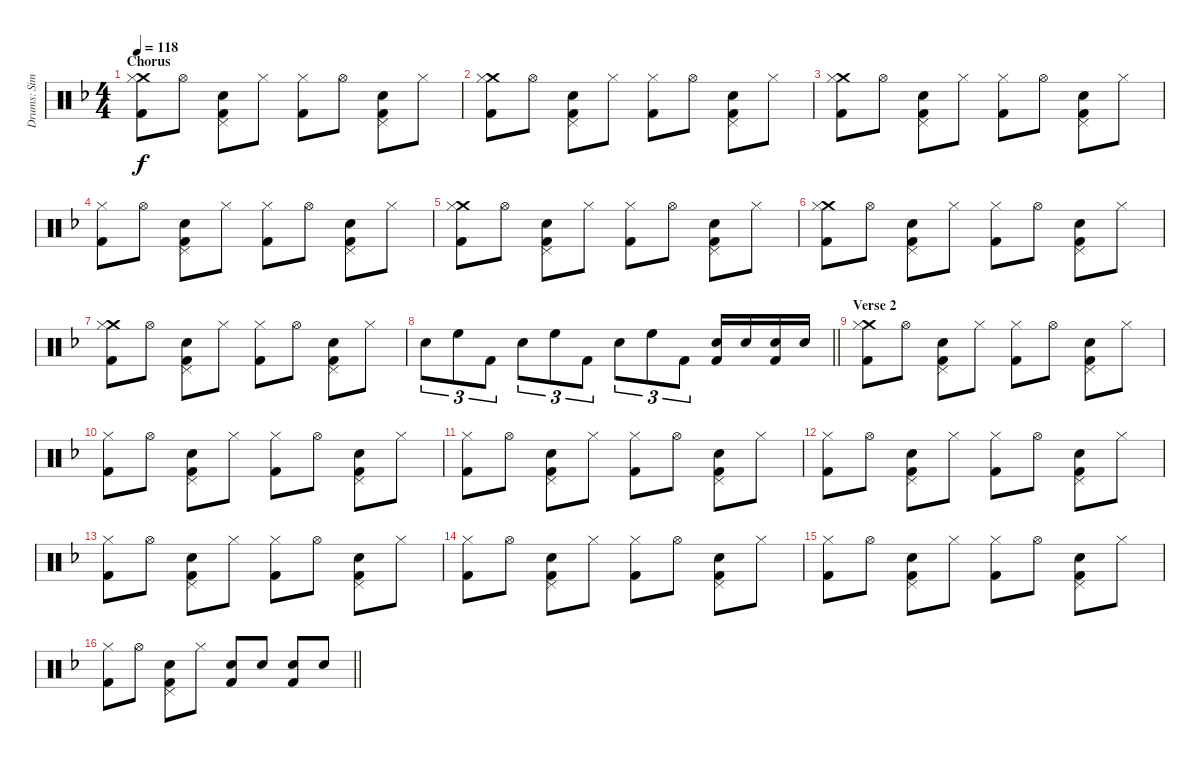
\track ("Drums: Simon Kirke" "Drums: Sim") {instrument percussion}
\staff {score}
\articulation defaults
\ts (4 4)
\section ("" "Chorus")
\tempo 118
\clef neutral
\ks f
("Crash medium (hit)" "Hi-Hat (closed)" "Kick (hit) 2").8{dy f} "Hi-Hat (open)".8 ("Pedal Hi-Hat (hit)" "Snare (hit) 2" "Kick (hit) 2").8 "Hi-Hat (closed)".8 ("Hi-Hat (closed)" "Kick (hit) 2").8 "Hi-Hat (open)".8 ("Pedal Hi-Hat (hit)" "Snare (hit) 2" "Kick (hit) 2").8 "Hi-Hat (closed)".8 |
("Crash medium (hit)" "Hi-Hat (closed)" "Kick (hit) 2").8 "Hi-Hat (open)".8 ("Pedal Hi-Hat (hit)" "Snare (hit) 2" "Kick (hit) 2").8 "Hi-Hat (closed)".8 ("Hi-Hat (closed)" "Kick (hit) 2").8 "Hi-Hat (open)".8 ("Pedal Hi-Hat (hit)" "Snare (hit) 2" "Kick (hit) 2").8 "Hi-Hat (closed)".8 |
("Crash medium (hit)" "Hi-Hat (closed)" "Kick (hit) 2").8 "Hi-Hat (open)".8 ("Pedal Hi-Hat (hit)" "Snare (hit) 2" "Kick (hit) 2").8 "Hi-Hat (closed)".8 ("Hi-Hat (closed)" "Kick (hit) 2").8 "Hi-Hat (open)".8 ("Pedal Hi-Hat (hit)" "Snare (hit) 2" "Kick (hit) 2").8 "Hi-Hat (closed)".8 |
("Hi-Hat (closed)" "Kick (hit) 2").8 "Hi-Hat (open)".8 ("Pedal Hi-Hat (hit)" "Snare (hit) 2" "Kick (hit) 2").8 "Hi-Hat (closed)".8 ("Hi-Hat (closed)" "Kick (hit) 2").8 "Hi-Hat (open)".8 ("Pedal Hi-Hat (hit)" "Snare (hit) 2" "Kick (hit) 2").8 "Hi-Hat (closed)".8 |
("Crash medium (hit)" "Hi-Hat (closed)" "Kick (hit) 2").8 "Hi-Hat (open)".8 ("Pedal Hi-Hat (hit)" "Snare (hit) 2" "Kick (hit) 2").8 "Hi-Hat (closed)".8 ("Hi-Hat (closed)" "Kick (hit) 2").8 "Hi-Hat (open)".8 ("Pedal Hi-Hat (hit)" "Snare (hit) 2" "Kick (hit) 2").8 "Hi-Hat (closed)".8 |
("Crash medium (hit)" "Hi-Hat (closed)" "Kick (hit) 2").8 "Hi-Hat (open)".8 ("Pedal Hi-Hat (hit)" "Snare (hit) 2" "Kick (hit) 2").8 "Hi-Hat (closed)".8 ("Hi-Hat (closed)" "Kick (hit) 2").8 "Hi-Hat (open)".8 ("Pedal Hi-Hat (hit)" "Snare (hit) 2" "Kick (hit) 2").8 "Hi-Hat (closed)".8 |
("Crash medium (hit)" "Hi-Hat (closed)" "Kick (hit) 2").8 "Hi-Hat (open)".8 ("Pedal Hi-Hat (hit)" "Snare (hit) 2" "Kick (hit) 2").8 "Hi-Hat (closed)".8 ("Hi-Hat (closed)" "Kick (hit) 2").8 "Hi-Hat (open)".8 ("Pedal Hi-Hat (hit)" "Snare (hit) 2" "Kick (hit) 2").8 "Hi-Hat (closed)".8 |
\barLineRight lightlight "Snare (hit) 2".8{tu (3 2)} "High Floor Tom (hit)".8{tu (3 2)} "Kick (hit) 2".8{tu (3 2)} "Snare (hit) 2".8{tu (3 2)} "High Floor Tom (hit)".8{tu (3 2)} "Kick (hit) 2".8{tu (3 2)} "Snare (hit) 2".8{tu (3 2)} "High Floor Tom (hit)".8{tu (3 2)} "Kick (hit) 2".8{tu (3 2)}
("Snare (hit) 2" "Kick (hit) 2").16 "Snare (hit) 2".16 ("Snare (hit) 2" "Kick (hit) 2").16 "Snare (hit) 2".16 |
\section ("" "Verse 2")
("Crash medium (hit)" "Hi-Hat (closed)" "Kick (hit) 2").8 "Hi-Hat (open)".8 ("Pedal Hi-Hat (hit)" "Snare (hit) 2" "Kick (hit) 2").8 "Hi-Hat (closed)".8 ("Hi-Hat (closed)" "Kick (hit) 2").8 "Hi-Hat (open)".8 ("Pedal Hi-Hat (hit)" "Snare (hit) 2" "Kick (hit) 2").8 "Hi-Hat (closed)".8 |
("Hi-Hat (closed)" "Kick (hit) 2").8 "Hi-Hat (open)".8 ("Pedal Hi-Hat (hit)" "Snare (hit) 2" "Kick (hit) 2").8 "Hi-Hat (closed)".8 ("Hi-Hat (closed)" "Kick (hit) 2").8 "Hi-Hat (open)".8 ("Pedal Hi-Hat (hit)" "Snare (hit) 2" "Kick (hit) 2").8 "Hi-Hat (closed)".8 |
("Hi-Hat (closed)" "Kick (hit) 2").8 "Hi-Hat (open)".8 ("Pedal Hi-Hat (hit)" "Snare (hit) 2" "Kick (hit) 2").8 "Hi-Hat (closed)".8 ("Hi-Hat (closed)" "Kick (hit) 2").8 "Hi-Hat (open)".8 ("Pedal Hi-Hat (hit)" "Snare (hit) 2" "Kick (hit) 2").8 "Hi-Hat (closed)".8 |
("Hi-Hat (closed)" "Kick (hit) 2").8 "Hi-Hat (open)".8 ("Pedal Hi-Hat (hit)" "Snare (hit) 2" "Kick (hit) 2").8 "Hi-Hat (closed)".8 ("Hi-Hat (closed)" "Kick (hit) 2").8 "Hi-Hat (open)".8 ("Pedal Hi-Hat (hit)" "Snare (hit) 2" "Kick (hit) 2").8 "Hi-Hat (closed)".8 |
("Hi-Hat (closed)" "Kick (hit) 2").8 "Hi-Hat (open)".8 ("Pedal Hi-Hat (hit)" "Snare (hit) 2" "Kick (hit) 2").8 "Hi-Hat (closed)".8 ("Hi-Hat (closed)" "Kick (hit) 2").8 "Hi-Hat (open)".8 ("Pedal Hi-Hat (hit)" "Snare (hit) 2" "Kick (hit) 2").8 "Hi-Hat (closed)".8 |
("Hi-Hat (closed)" "Kick (hit) 2").8 "Hi-Hat (open)".8 ("Pedal Hi-Hat (hit)" "Snare (hit) 2" "Kick (hit) 2").8 "Hi-Hat (closed)".8 ("Hi-Hat (closed)" "Kick (hit) 2").8 "Hi-Hat (open)".8 ("Pedal Hi-Hat (hit)" "Snare (hit) 2" "Kick (hit) 2").8 "Hi-Hat (closed)".8 |
("Hi-Hat (closed)" "Kick (hit) 2").8 "Hi-Hat (open)".8 ("Pedal Hi-Hat (hit)" "Snare (hit) 2" "Kick (hit) 2").8 "Hi-Hat (closed)".8 ("Hi-Hat (closed)" "Kick (hit) 2").8 "Hi-Hat (open)".8 ("Pedal Hi-Hat (hit)" "Snare (hit) 2" "Kick (hit) 2").8 "Hi-Hat (closed)".8 |
\barLineRight lightlight
("Hi-Hat (closed)" "Kick (hit) 2").8 "Hi-Hat (open)".8 ("Pedal Hi-Hat (hit)" "Snare (hit) 2" "Kick (hit) 2").8 "Hi-Hat (closed)".8 ("Snare (hit) 2" "Kick (hit) 2").8 "Snare (hit) 2".8 ("Snare (hit) 2" "Kick (hit) 2").8 "Snare (hit) 2".8
